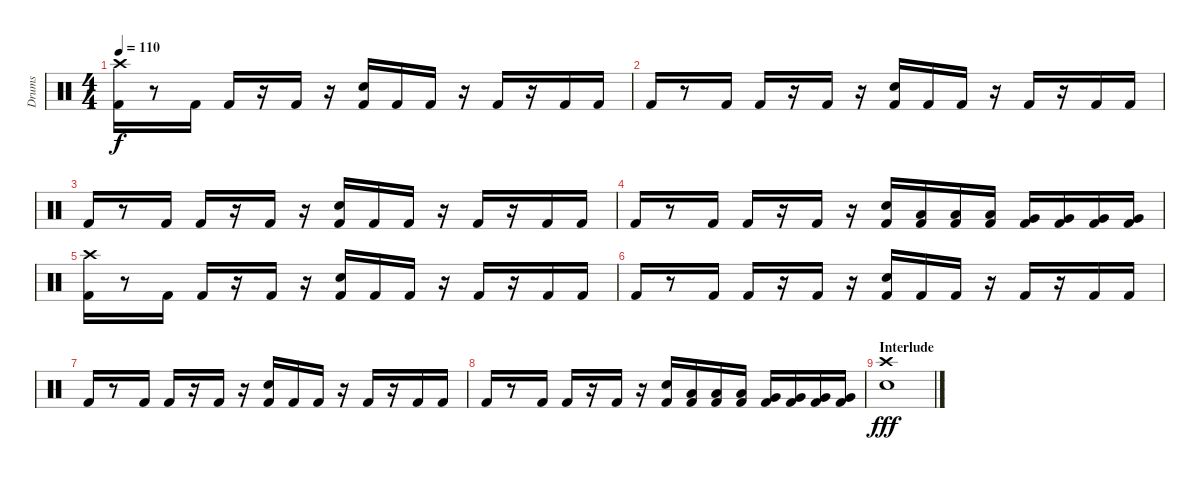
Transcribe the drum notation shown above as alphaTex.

\track ("Drums" "Drums") {instrument percussion}
\staff {score}
\articulation defaults
\ts (4 4)
\tempo 110
\clef neutral
\ks c
("Crash high (hit)" "Kick (hit) 2").16{dy f} r.8 "Kick (hit) 2".16 "Kick (hit) 2".16 r.16 "Kick (hit) 2".16 r.16 ("Electric Snare (hit)" "Kick (hit) 2").16 "Kick (hit) 2".16 "Kick (hit) 2".16 r.16 "Kick (hit) 2".16 r.16 "Kick (hit) 2".16 "Kick (hit) 2".16 |
"Kick (hit) 2".16 r.8 "Kick (hit) 2".16 "Kick (hit) 2".16 r.16 "Kick (hit) 2".16 r.16 ("Electric Snare (hit)" "Kick (hit) 2").16 "Kick (hit) 2".16 "Kick (hit) 2".16 r.16 "Kick (hit) 2".16 r.16 "Kick (hit) 2".16 "Kick (hit) 2".16 |
"Kick (hit) 2".16 r.8 "Kick (hit) 2".16 "Kick (hit) 2".16 r.16 "Kick (hit) 2".16 r.16 ("Electric Snare (hit)" "Kick (hit) 2").16 "Kick (hit) 2".16 "Kick (hit) 2".16 r.16 "Kick (hit) 2".16 r.16 "Kick (hit) 2".16 "Kick (hit) 2".16 |
"Kick (hit) 2".16 r.8 "Kick (hit) 2".16 "Kick (hit) 2".16 r.16 "Kick (hit) 2".16 r.16 ("Electric Snare (hit)" "Kick (hit) 2").16 ("Low Tom (hit)" "Kick (hit) 2").16 ("Low Tom (hit)" "Kick (hit) 2").16 ("Low Tom (hit)" "Kick (hit) 2").16 ("Very Low Tom (hit)" "Kick (hit) 2").16 ("Very Low Tom (hit)" "Kick (hit) 2").16 ("Very Low Tom (hit)" "Kick (hit) 2").16 ("Very Low Tom (hit)" "Kick (hit) 2").16 |
("Crash high (hit)" "Kick (hit) 2").16 r.8 "Kick (hit) 2".16 "Kick (hit) 2".16 r.16 "Kick (hit) 2".16 r.16 ("Electric Snare (hit)" "Kick (hit) 2").16 "Kick (hit) 2".16 "Kick (hit) 2".16 r.16 "Kick (hit) 2".16 r.16 "Kick (hit) 2".16 "Kick (hit) 2".16 |
"Kick (hit) 2".16 r.8 "Kick (hit) 2".16 "Kick (hit) 2".16 r.16 "Kick (hit) 2".16 r.16 ("Electric Snare (hit)" "Kick (hit) 2").16 "Kick (hit) 2".16 "Kick (hit) 2".16 r.16 "Kick (hit) 2".16 r.16 "Kick (hit) 2".16 "Kick (hit) 2".16 |
"Kick (hit) 2".16 r.8 "Kick (hit) 2".16 "Kick (hit) 2".16 r.16 "Kick (hit) 2".16 r.16 ("Electric Snare (hit)" "Kick (hit) 2").16 "Kick (hit) 2".16 "Kick (hit) 2".16 r.16 "Kick (hit) 2".16 r.16 "Kick (hit) 2".16 "Kick (hit) 2".16 |
"Kick (hit) 2".16 r.8 "Kick (hit) 2".16 "Kick (hit) 2".16 r.16 "Kick (hit) 2".16 r.16 ("Electric Snare (hit)" "Kick (hit) 2").16 ("Low Tom (hit)" "Kick (hit) 2").16 ("Low Tom (hit)" "Kick (hit) 2").16 ("Low Tom (hit)" "Kick (hit) 2").16 ("Very Low Tom (hit)" "Kick (hit) 2").16 ("Very Low Tom (hit)" "Kick (hit) 2").16 ("Very Low Tom (hit)" "Kick (hit) 2").16 ("Very Low Tom (hit)" "Kick (hit) 2").16 |
\section ("" "Interlude")
("Crash high (hit)" "Electric Snare (hit)").1{dy fff}
